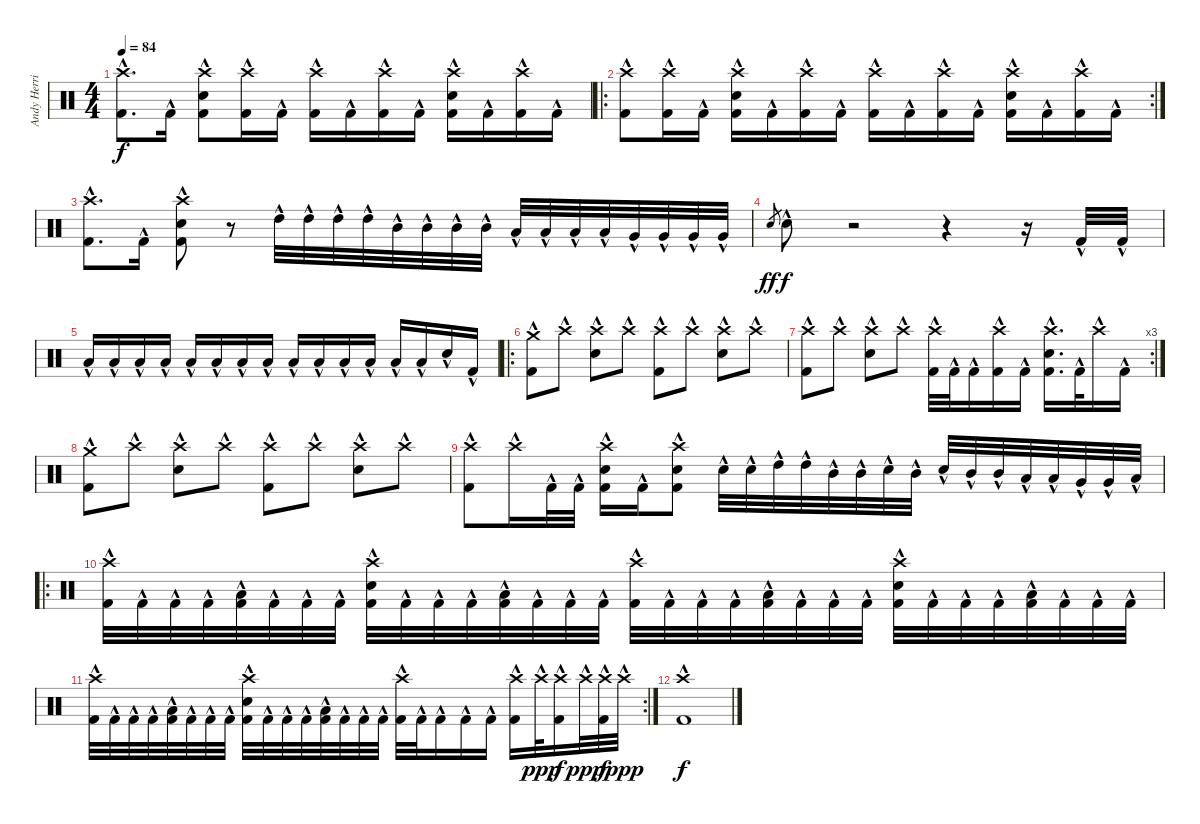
\track ("Andy Herrick" "Andy Herri") {instrument percussion}
\staff {score}
\articulation defaults
\ts (4 4)
\tempo 84
\clef neutral
\ks c
("Crash high (hit)"{hac} "Kick (hit) 2"{hac}).8{d dy f} "Kick (hit) 2"{hac}.16 ("Crash high (hit)"{hac} "Electric Snare (hit)"{hac} "Kick (hit) 2"{hac}).8 ("Crash high (hit)"{hac} "Kick (hit) 2"{hac}).16 "Kick (hit) 2"{hac}.16 ("Crash high (hit)"{hac} "Kick (hit) 2"{hac}).16 "Kick (hit) 2"{hac}.16 ("Crash high (hit)"{hac} "Kick (hit) 2"{hac}).16 "Kick (hit) 2"{hac}.16 ("Crash high (hit)"{hac} "Electric Snare (hit)"{hac} "Kick (hit) 2"{hac}).16 "Kick (hit) 2"{hac}.16 ("Crash high (hit)"{hac} "Kick (hit) 2"{hac}).16 "Kick (hit) 2"{hac}.16 |
\ro
\rc 2
("Crash high (hit)"{hac} "Kick (hit) 2"{hac}).8 ("Crash high (hit)"{hac} "Kick (hit) 2"{hac}).16 "Kick (hit) 2"{hac}.16 ("Crash high (hit)"{hac} "Electric Snare (hit)"{hac} "Kick (hit) 2"{hac}).16 "Kick (hit) 2"{hac}.16 ("Crash high (hit)"{hac} "Kick (hit) 2"{hac}).16 "Kick (hit) 2"{hac}.16 ("Crash high (hit)"{hac} "Kick (hit) 2"{hac}).16 "Kick (hit) 2"{hac}.16 ("Crash high (hit)"{hac} "Kick (hit) 2"{hac}).16 "Kick (hit) 2"{hac}.16 ("Crash high (hit)"{hac} "Electric Snare (hit)"{hac} "Kick (hit) 2"{hac}).16 "Kick (hit) 2"{hac}.16 ("Crash high (hit)"{hac} "Kick (hit) 2"{hac}).16 "Kick (hit) 2"{hac}.16 |
("Crash high (hit)"{hac} "Kick (hit) 2"{hac}).8{d} "Kick (hit) 2"{hac}.16 ("Crash high (hit)"{hac} "Electric Snare (hit)"{hac} "Kick (hit) 2"{hac}).8 r.8 "High Tom (hit)"{hac}.32 "High Tom (hit)"{hac}.32 "High Tom (hit)"{hac}.32 "High Tom (hit)"{hac}.32 "Mid Tom (hit)"{hac}.32 "Mid Tom (hit)"{hac}.32 "Mid Tom (hit)"{hac}.32 "Mid Tom (hit)"{hac}.32 "Low Tom (hit)"{hac}.32 "Low Tom (hit)"{hac}.32 "Low Tom (hit)"{hac}.32 "Low Tom (hit)"{hac}.32 "Very Low Tom (hit)"{hac}.32 "Very Low Tom (hit)"{hac}.32 "Very Low Tom (hit)"{hac}.32 "Very Low Tom (hit)"{hac}.32 |
"Electric Snare (hit)".8{gr dy ff} "Electric Snare (hit)"{hac}.8{dy f} r.2 r.4 r.16 "Kick (hit) 2"{hac}.32 "Kick (hit) 2"{hac}.32 |
"Low Floor Tom (hit)"{hac}.16{volume 3} "Low Floor Tom (hit)"{hac}.16{volume 13} "Low Floor Tom (hit)"{hac}.16 "Low Floor Tom (hit)"{hac}.16 "Low Floor Tom (hit)"{hac}.16 "Low Floor Tom (hit)"{hac}.16 "Low Floor Tom (hit)"{hac}.16 "Low Floor Tom (hit)"{hac}.16 "Low Floor Tom (hit)"{hac}.16 "Low Floor Tom (hit)"{hac}.16 "Low Floor Tom (hit)"{hac}.16 "Low Floor Tom (hit)"{hac}.16 "Low Floor Tom (hit)"{hac}.16 "Low Floor Tom (hit)"{hac}.16 "Electric Snare (hit)"{hac}.16 "Kick (hit) 2"{hac}.16 |
\ro
("Crash medium (hit)"{hac} "Kick (hit) 2"{hac}).8 "Crash high (hit)"{hac}.8 ("Crash high (hit)"{hac} "Electric Snare (hit)"{hac}).8 "Crash high (hit)"{hac}.8 ("Crash high (hit)"{hac} "Kick (hit) 2"{hac}).8 "Crash high (hit)"{hac}.8 ("Crash high (hit)"{hac} "Electric Snare (hit)"{hac}).8 "Crash high (hit)"{hac}.8 |
\rc 3
("Crash high (hit)"{hac} "Kick (hit) 2"{hac}).8 "Crash high (hit)"{hac}.8 ("Crash high (hit)"{hac} "Electric Snare (hit)"{hac}).8 "Crash high (hit)"{hac}.8 ("Crash high (hit)"{hac} "Kick (hit) 2"{hac}).32 "Kick (hit) 2"{hac}.32 "Kick (hit) 2"{hac}.16 ("Crash high (hit)"{hac} "Kick (hit) 2"{hac}).16 "Kick (hit) 2"{hac}.16 ("Crash high (hit)"{hac} "Electric Snare (hit)"{hac} "Kick (hit) 2"{hac}).16{d} "Kick (hit) 2"{hac}.32 "Crash high (hit)"{hac}.16 "Kick (hit) 2"{hac}.16 |
("Crash medium (hit)"{hac} "Kick (hit) 2"{hac}).8 "Crash high (hit)"{hac}.8 ("Crash high (hit)"{hac} "Electric Snare (hit)"{hac}).8 "Crash high (hit)"{hac}.8 ("Crash high (hit)"{hac} "Kick (hit) 2"{hac}).8 "Crash high (hit)"{hac}.8 ("Crash high (hit)"{hac} "Electric Snare (hit)"{hac}).8 "Crash high (hit)"{hac}.8 |
("Crash high (hit)"{hac} "Kick (hit) 2"{hac}).8 "Crash high (hit)"{hac}.16 "Kick (hit) 2"{hac}.32 "Kick (hit) 2"{hac}.32 ("Crash high (hit)"{hac} "Electric Snare (hit)"{hac} "Kick (hit) 2"{hac}).16 "Kick (hit) 2"{hac}.16 ("Crash high (hit)"{hac} "Electric Snare (hit)"{hac} "Kick (hit) 2"{hac}).8 "Electric Snare (hit)"{hac}.32 "Electric Snare (hit)"{hac}.32 "High Tom (hit)"{hac}.32 "High Tom (hit)"{hac}.32 "Mid Tom (hit)"{hac}.32 "Mid Tom (hit)"{hac}.32 "Electric Snare (hit)"{hac}.32 "Mid Tom (hit)"{hac}.32 "Electric Snare (hit)"{hac}.32 "Mid Tom (hit)"{hac}.32 "Mid Tom (hit)"{hac}.32 "Low Tom (hit)"{hac}.32 "Low Tom (hit)"{hac}.32 "Very Low Tom (hit)"{hac}.32 "Very Low Tom (hit)"{hac}.32 "Low Floor Tom (hit)"{hac}.32 |
\ro
("Crash high (hit)"{hac} "Kick (hit) 2"{hac}).32 "Kick (hit) 2"{hac}.32 "Kick (hit) 2"{hac}.32 "Kick (hit) 2"{hac}.32 ("Low Floor Tom (hit)"{hac} "Kick (hit) 2"{hac}).32 "Kick (hit) 2"{hac}.32 "Kick (hit) 2"{hac}.32 "Kick (hit) 2"{hac}.32 ("Crash high (hit)"{hac} "Electric Snare (hit)"{hac} "Kick (hit) 2"{hac}).32 "Kick (hit) 2"{hac}.32 "Kick (hit) 2"{hac}.32 "Kick (hit) 2"{hac}.32 ("Low Floor Tom (hit)"{hac} "Kick (hit) 2"{hac}).32 "Kick (hit) 2"{hac}.32 "Kick (hit) 2"{hac}.32 "Kick (hit) 2"{hac}.32 ("Crash high (hit)"{hac} "Kick (hit) 2"{hac}).32 "Kick (hit) 2"{hac}.32 "Kick (hit) 2"{hac}.32 "Kick (hit) 2"{hac}.32 ("Low Floor Tom (hit)"{hac} "Kick (hit) 2"{hac}).32 "Kick (hit) 2"{hac}.32 "Kick (hit) 2"{hac}.32 "Kick (hit) 2"{hac}.32 ("Crash high (hit)"{hac} "Electric Snare (hit)"{hac} "Kick (hit) 2"{hac}).32 "Kick (hit) 2"{hac}.32 "Kick (hit) 2"{hac}.32 "Kick (hit) 2"{hac}.32 ("Low Floor Tom (hit)"{hac} "Kick (hit) 2"{hac}).32 "Kick (hit) 2"{hac}.32 "Kick (hit) 2"{hac}.32 "Kick (hit) 2"{hac}.32 |
\rc 2
("Crash high (hit)"{hac} "Kick (hit) 2"{hac}).32 "Kick (hit) 2"{hac}.32 "Kick (hit) 2"{hac}.32 "Kick (hit) 2"{hac}.32 ("Low Floor Tom (hit)"{hac} "Kick (hit) 2"{hac}).32 "Kick (hit) 2"{hac}.32 "Kick (hit) 2"{hac}.32 "Kick (hit) 2"{hac}.32 ("Crash high (hit)"{hac} "Electric Snare (hit)"{hac} "Kick (hit) 2"{hac}).32 "Kick (hit) 2"{hac}.32 "Kick (hit) 2"{hac}.32 "Kick (hit) 2"{hac}.32 ("Low Floor Tom (hit)"{hac} "Kick (hit) 2"{hac}).32 "Kick (hit) 2"{hac}.32 "Kick (hit) 2"{hac}.32 "Kick (hit) 2"{hac}.32 ("Crash high (hit)"{hac} "Kick (hit) 2"{hac}).32 "Kick (hit) 2"{hac}.32 "Kick (hit) 2"{hac}.16 "Kick (hit) 2"{hac}.16 "Kick (hit) 2"{hac}.16 ("Crash high (hit)"{hac} "Kick (hit) 2"{hac}).16 "Crash high (hit)"{hac}.32{dy ppp} ("Crash high (hit)"{hac} "Kick (hit) 2"{hac}).16{dy f} "Crash high (hit)"{hac}.32{dy ppp} ("Crash high (hit)"{hac} "Kick (hit) 2"{hac}).32{dy f} "Crash high (hit)"{hac}.32{dy ppp} |
("Crash high (hit)"{hac} "Kick (hit) 2"{hac}).1{dy f}
